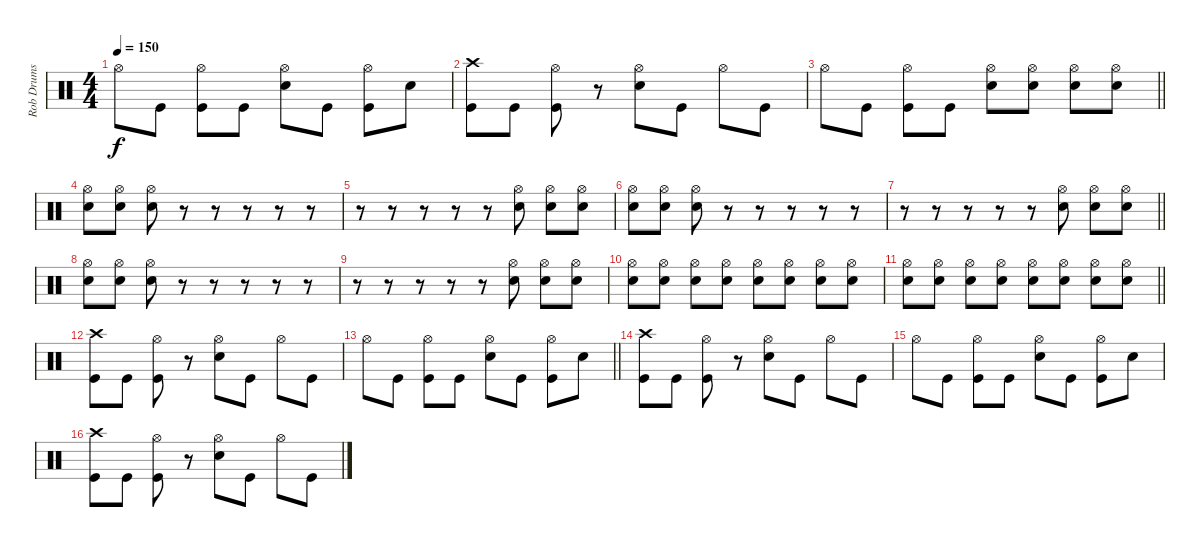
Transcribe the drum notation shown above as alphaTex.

\track ("Rob Drums" "Rob Drums") {instrument percussion}
\staff {score}
\articulation defaults
\ts (4 4)
\tempo 150
\clef neutral
\ks c "Hi-Hat (open)".8{dy f} "Kick (hit)".8
("Hi-Hat (open)" "Kick (hit)").8 "Kick (hit)".8 ("Hi-Hat (open)" "Snare (hit) 2").8 "Kick (hit)".8 ("Hi-Hat (open)" "Kick (hit)").8 "Snare (hit) 2".8 |
("Crash high (hit)" "Kick (hit)").8 "Kick (hit)".8 ("Hi-Hat (open)" "Kick (hit)").8 r.8 ("Hi-Hat (open)" "Snare (hit) 2").8 "Kick (hit)".8 "Hi-Hat (open)".8 "Kick (hit)".8 |
\barLineRight lightlight "Hi-Hat (open)".8 "Kick (hit)".8
("Hi-Hat (open)" "Kick (hit)").8 "Kick (hit)".8 ("Hi-Hat (open)" "Snare (hit) 2").8 ("Hi-Hat (open)" "Snare (hit) 2").8 ("Hi-Hat (open)" "Snare (hit) 2").8 ("Hi-Hat (open)" "Snare (hit) 2").8 |
("Hi-Hat (open)" "Snare (hit) 2").8 ("Hi-Hat (open)" "Snare (hit) 2").8 ("Hi-Hat (open)" "Snare (hit) 2").8 r.8 r.8 r.8 r.8 r.8 |
r.8 r.8 r.8 r.8 r.8 ("Hi-Hat (open)" "Snare (hit) 2").8 ("Hi-Hat (open)" "Snare (hit) 2").8 ("Hi-Hat (open)" "Snare (hit) 2").8 |
("Hi-Hat (open)" "Snare (hit) 2").8 ("Hi-Hat (open)" "Snare (hit) 2").8 ("Hi-Hat (open)" "Snare (hit) 2").8 r.8 r.8 r.8 r.8 r.8 |
\barLineRight lightlight
r.8 r.8 r.8 r.8 r.8 ("Hi-Hat (open)" "Snare (hit) 2").8 ("Hi-Hat (open)" "Snare (hit) 2").8 ("Hi-Hat (open)" "Snare (hit) 2").8 |
("Hi-Hat (open)" "Snare (hit) 2").8 ("Hi-Hat (open)" "Snare (hit) 2").8 ("Hi-Hat (open)" "Snare (hit) 2").8 r.8 r.8 r.8 r.8 r.8 |
r.8 r.8 r.8 r.8 r.8 ("Hi-Hat (open)" "Snare (hit) 2").8 ("Hi-Hat (open)" "Snare (hit) 2").8 ("Hi-Hat (open)" "Snare (hit) 2").8 |
("Hi-Hat (open)" "Snare (hit) 2").8 ("Hi-Hat (open)" "Snare (hit) 2").8 ("Hi-Hat (open)" "Snare (hit) 2").8 ("Hi-Hat (open)" "Snare (hit) 2").8 ("Hi-Hat (open)" "Snare (hit) 2").8 ("Hi-Hat (open)" "Snare (hit) 2").8 ("Hi-Hat (open)" "Snare (hit) 2").8 ("Hi-Hat (open)" "Snare (hit) 2").8 |
\barLineRight lightlight
("Hi-Hat (open)" "Snare (hit) 2").8 ("Hi-Hat (open)" "Snare (hit) 2").8 ("Hi-Hat (open)" "Snare (hit) 2").8 ("Hi-Hat (open)" "Snare (hit) 2").8 ("Hi-Hat (open)" "Snare (hit) 2").8 ("Hi-Hat (open)" "Snare (hit) 2").8 ("Hi-Hat (open)" "Snare (hit) 2").8 ("Hi-Hat (open)" "Snare (hit) 2").8 |
("Crash high (hit)" "Kick (hit)").8 "Kick (hit)".8 ("Hi-Hat (open)" "Kick (hit)").8 r.8 ("Hi-Hat (open)" "Snare (hit) 2").8 "Kick (hit)".8 "Hi-Hat (open)".8 "Kick (hit)".8 |
\barLineRight lightlight "Hi-Hat (open)".8 "Kick (hit)".8
("Hi-Hat (open)" "Kick (hit)").8 "Kick (hit)".8 ("Hi-Hat (open)" "Snare (hit) 2").8 "Kick (hit)".8 ("Hi-Hat (open)" "Kick (hit)").8 "Snare (hit) 2".8 |
("Crash high (hit)" "Kick (hit)").8 "Kick (hit)".8 ("Hi-Hat (open)" "Kick (hit)").8 r.8 ("Hi-Hat (open)" "Snare (hit) 2").8 "Kick (hit)".8 "Hi-Hat (open)".8 "Kick (hit)".8 |
"Hi-Hat (open)".8 "Kick (hit)".8 ("Hi-Hat (open)" "Kick (hit)").8 "Kick (hit)".8 ("Hi-Hat (open)" "Snare (hit) 2").8 "Kick (hit)".8 ("Hi-Hat (open)" "Kick (hit)").8 "Snare (hit) 2".8 |
("Crash high (hit)" "Kick (hit)").8 "Kick (hit)".8 ("Hi-Hat (open)" "Kick (hit)").8 r.8 ("Hi-Hat (open)" "Snare (hit) 2").8 "Kick (hit)".8 "Hi-Hat (open)".8 "Kick (hit)".8
